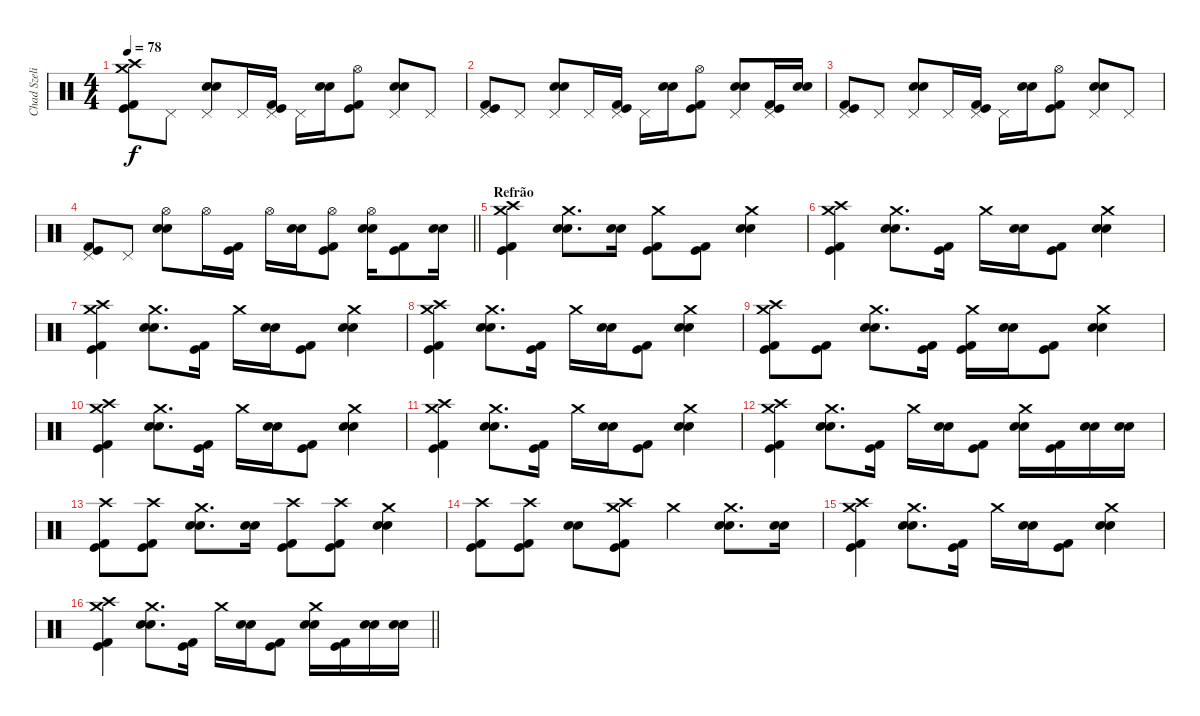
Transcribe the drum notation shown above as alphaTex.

\track ("Chad Szeliga" "Chad Szeli") {instrument percussion}
\staff {score}
\articulation defaults
\ts (4 4)
\tempo 78
\clef neutral
\ks c
("Crash high (hit)" "Kick (hit) 2" "Kick (hit)" "Crash medium (hit)").8{dy f} "Pedal Hi-Hat (hit)".8 ("Snare (hit) 2" "Snare (hit) 2" "Pedal Hi-Hat (hit)").8 "Pedal Hi-Hat (hit)".16 ("Kick (hit) 2" "Kick (hit)" "Pedal Hi-Hat (hit)").16 "Pedal Hi-Hat (hit)".16 ("Snare (hit) 2" "Snare (hit) 2").16 ("Kick (hit) 2" "Kick (hit)" "Hi-Hat (open)").8 ("Snare (hit) 2" "Snare (hit) 2" "Pedal Hi-Hat (hit)").8 "Pedal Hi-Hat (hit)".8 |
("Kick (hit) 2" "Kick (hit)" "Pedal Hi-Hat (hit)").8 "Pedal Hi-Hat (hit)".8 ("Snare (hit) 2" "Snare (hit) 2" "Pedal Hi-Hat (hit)").8 "Pedal Hi-Hat (hit)".16 ("Kick (hit) 2" "Kick (hit)" "Pedal Hi-Hat (hit)").16 "Pedal Hi-Hat (hit)".16 ("Snare (hit) 2" "Snare (hit) 2").16 ("Kick (hit) 2" "Kick (hit)" "Hi-Hat (open)").8 ("Snare (hit) 2" "Snare (hit) 2" "Pedal Hi-Hat (hit)").8 ("Kick (hit) 2" "Kick (hit)" "Pedal Hi-Hat (hit)").16 ("Snare (hit) 2" "Snare (hit) 2").16 |
("Kick (hit) 2" "Kick (hit)" "Pedal Hi-Hat (hit)").8 "Pedal Hi-Hat (hit)".8 ("Snare (hit) 2" "Snare (hit) 2" "Pedal Hi-Hat (hit)").8 "Pedal Hi-Hat (hit)".16 ("Kick (hit) 2" "Kick (hit)" "Pedal Hi-Hat (hit)").16 "Pedal Hi-Hat (hit)".16 ("Snare (hit) 2" "Snare (hit) 2").16 ("Kick (hit) 2" "Kick (hit)" "Hi-Hat (open)").8 ("Snare (hit) 2" "Snare (hit) 2" "Pedal Hi-Hat (hit)").8 "Pedal Hi-Hat (hit)".8 |
\barLineRight lightlight
("Kick (hit) 2" "Kick (hit)" "Pedal Hi-Hat (hit)").8 "Pedal Hi-Hat (hit)".8 ("Snare (hit) 2" "Snare (hit) 2" "Hi-Hat (open)").8 "Hi-Hat (open)".16 ("Kick (hit) 2" "Kick (hit)").16 "Hi-Hat (open)".16 ("Snare (hit) 2" "Snare (hit) 2").16 ("Kick (hit) 2" "Kick (hit)" "Hi-Hat (open)").8 ("Snare (hit) 2" "Snare (hit) 2" "Hi-Hat (open)").16 ("Kick (hit) 2" "Kick (hit)").8 ("Snare (hit) 2" "Snare (hit) 2").16 |
\section ("" "Refrão")
("Crash high (hit)" "Kick (hit) 2" "Kick (hit)" "Crash medium (hit)").4 ("Crash medium (hit)" "Snare (hit) 2" "Snare (hit) 2").8{d} ("Snare (hit) 2" "Snare (hit) 2").16 ("Crash medium (hit)" "Kick (hit) 2" "Kick (hit)").8 ("Kick (hit) 2" "Kick (hit)").8 ("Crash medium (hit)" "Snare (hit) 2" "Snare (hit) 2").4 |
("Crash high (hit)" "Kick (hit) 2" "Kick (hit)" "Crash medium (hit)").4 ("Crash medium (hit)" "Snare (hit) 2" "Snare (hit) 2").8{d} ("Kick (hit) 2" "Kick (hit)").16 "Crash medium (hit)".16 ("Snare (hit) 2" "Snare (hit) 2").16 ("Kick (hit) 2" "Kick (hit)").8 ("Crash medium (hit)" "Snare (hit) 2" "Snare (hit) 2").4 |
("Crash high (hit)" "Kick (hit) 2" "Kick (hit)" "Crash medium (hit)").4 ("Crash medium (hit)" "Snare (hit) 2" "Snare (hit) 2").8{d} ("Kick (hit) 2" "Kick (hit)").16 "Crash medium (hit)".16 ("Snare (hit) 2" "Snare (hit) 2").16 ("Kick (hit) 2" "Kick (hit)").8 ("Crash medium (hit)" "Snare (hit) 2" "Snare (hit) 2").4 |
("Crash high (hit)" "Kick (hit) 2" "Kick (hit)" "Crash medium (hit)").4 ("Crash medium (hit)" "Snare (hit) 2" "Snare (hit) 2").8{d} ("Kick (hit) 2" "Kick (hit)").16 "Crash medium (hit)".16 ("Snare (hit) 2" "Snare (hit) 2").16 ("Kick (hit) 2" "Kick (hit)").8 ("Crash medium (hit)" "Snare (hit) 2" "Snare (hit) 2").4 |
("Crash high (hit)" "Kick (hit) 2" "Kick (hit)" "Crash medium (hit)").8 ("Kick (hit) 2" "Kick (hit)").8 ("Crash medium (hit)" "Snare (hit) 2" "Snare (hit) 2").8{d} ("Kick (hit) 2" "Kick (hit)").16 ("Crash medium (hit)" "Kick (hit) 2" "Kick (hit)").16 ("Snare (hit) 2" "Snare (hit) 2").16 ("Kick (hit) 2" "Kick (hit)").8 ("Crash medium (hit)" "Snare (hit) 2" "Snare (hit) 2").4 |
("Crash high (hit)" "Kick (hit) 2" "Kick (hit)" "Crash medium (hit)").4 ("Crash medium (hit)" "Snare (hit) 2" "Snare (hit) 2").8{d} ("Kick (hit) 2" "Kick (hit)").16 "Crash medium (hit)".16 ("Snare (hit) 2" "Snare (hit) 2").16 ("Kick (hit) 2" "Kick (hit)").8 ("Crash medium (hit)" "Snare (hit) 2" "Snare (hit) 2").4 |
("Crash high (hit)" "Kick (hit) 2" "Kick (hit)" "Crash medium (hit)").4 ("Crash medium (hit)" "Snare (hit) 2" "Snare (hit) 2").8{d} ("Kick (hit) 2" "Kick (hit)").16 "Crash medium (hit)".16 ("Snare (hit) 2" "Snare (hit) 2").16 ("Kick (hit) 2" "Kick (hit)").8 ("Crash medium (hit)" "Snare (hit) 2" "Snare (hit) 2").4 |
("Crash high (hit)" "Kick (hit) 2" "Kick (hit)" "Crash medium (hit)").4 ("Crash medium (hit)" "Snare (hit) 2" "Snare (hit) 2").8{d} ("Kick (hit) 2" "Kick (hit)").16 "Crash medium (hit)".16 ("Snare (hit) 2" "Snare (hit) 2").16 ("Kick (hit) 2" "Kick (hit)").8 ("Crash medium (hit)" "Snare (hit) 2" "Snare (hit) 2").16 ("Kick (hit) 2" "Kick (hit)").16 ("Snare (hit) 2" "Snare (hit) 2").16 ("Snare (hit) 2" "Snare (hit) 2").16 |
("Crash high (hit)" "Kick (hit) 2" "Kick (hit)").8 ("Crash high (hit)" "Kick (hit) 2" "Kick (hit)").8 ("Crash medium (hit)" "Snare (hit) 2" "Snare (hit) 2").8{d} ("Snare (hit) 2" "Snare (hit) 2").16 ("Crash high (hit)" "Kick (hit) 2" "Kick (hit)").8 ("Crash high (hit)" "Kick (hit) 2" "Kick (hit)").8 ("Crash medium (hit)" "Snare (hit) 2" "Snare (hit) 2").4 |
("Crash high (hit)" "Kick (hit) 2" "Kick (hit)").8 ("Crash high (hit)" "Kick (hit) 2" "Kick (hit)").8 ("Snare (hit) 2" "Snare (hit) 2").8 ("Crash high (hit)" "Kick (hit) 2" "Kick (hit)" "Crash medium (hit)").8 "Crash medium (hit)".4 ("Crash medium (hit)" "Snare (hit) 2" "Snare (hit) 2").8{d} ("Snare (hit) 2" "Snare (hit) 2").16 |
("Crash high (hit)" "Kick (hit) 2" "Kick (hit)" "Crash medium (hit)").4 ("Crash medium (hit)" "Snare (hit) 2" "Snare (hit) 2").8{d} ("Kick (hit) 2" "Kick (hit)").16 "Crash medium (hit)".16 ("Snare (hit) 2" "Snare (hit) 2").16 ("Kick (hit) 2" "Kick (hit)").8 ("Crash medium (hit)" "Snare (hit) 2" "Snare (hit) 2").4 |
\barLineRight lightlight
("Crash high (hit)" "Kick (hit) 2" "Kick (hit)" "Crash medium (hit)").4 ("Crash medium (hit)" "Snare (hit) 2" "Snare (hit) 2").8{d} ("Kick (hit) 2" "Kick (hit)").16 "Crash medium (hit)".16 ("Snare (hit) 2" "Snare (hit) 2").16 ("Kick (hit) 2" "Kick (hit)").8 ("Crash medium (hit)" "Snare (hit) 2" "Snare (hit) 2").16 ("Kick (hit) 2" "Kick (hit)").16 ("Snare (hit) 2" "Snare (hit) 2").16 ("Snare (hit) 2" "Snare (hit) 2").16
